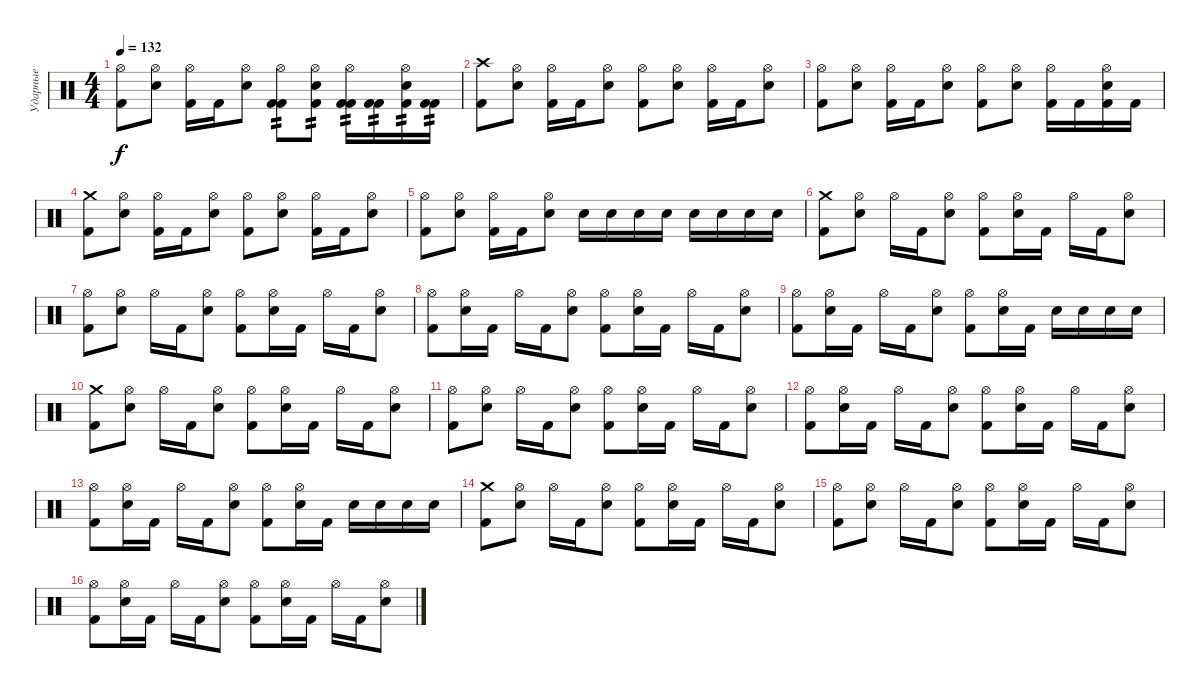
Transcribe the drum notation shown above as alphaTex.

\track ("Ударные" "Ударные") {instrument percussion}
\staff {score}
\articulation defaults
\ts (4 4)
\tempo 132
\clef neutral
\ks c
("Hi-Hat (open)" "Kick (hit) 2").8{dy f} ("Hi-Hat (open)" "Electric Snare (hit)").8 ("Hi-Hat (open)" "Kick (hit) 2").16 "Kick (hit) 2".16 ("Hi-Hat (open)" "Electric Snare (hit)").8 ("Hi-Hat (open)" "Kick (hit) 2" "Kick (hit) 2").8{tp 2} ("Hi-Hat (open)" "Electric Snare (hit)" "Kick (hit) 2").8{tp 2} ("Hi-Hat (open)" "Kick (hit) 2" "Kick (hit) 2").16{tp 2} ("Kick (hit) 2" "Kick (hit) 2").16{tp 2} ("Hi-Hat (open)" "Kick (hit) 2" "Electric Snare (hit)").16{tp 2} ("Kick (hit) 2" "Kick (hit) 2").16{tp 2} |
("Crash high (hit)" "Kick (hit) 2").8 ("Hi-Hat (open)" "Electric Snare (hit)").8 ("Hi-Hat (open)" "Kick (hit) 2").16 "Kick (hit) 2".16 ("Hi-Hat (open)" "Electric Snare (hit)").8 ("Hi-Hat (open)" "Kick (hit) 2").8 ("Hi-Hat (open)" "Electric Snare (hit)").8 ("Hi-Hat (open)" "Kick (hit) 2").16 "Kick (hit) 2".16 ("Hi-Hat (open)" "Electric Snare (hit)").8 |
("Hi-Hat (open)" "Kick (hit) 2").8 ("Hi-Hat (open)" "Electric Snare (hit)").8 ("Hi-Hat (open)" "Kick (hit) 2").16 "Kick (hit) 2".16 ("Hi-Hat (open)" "Electric Snare (hit)").8 ("Hi-Hat (open)" "Kick (hit) 2").8 ("Hi-Hat (open)" "Electric Snare (hit)").8 ("Hi-Hat (open)" "Kick (hit) 2").16 "Kick (hit) 2".16 ("Hi-Hat (open)" "Kick (hit) 2" "Electric Snare (hit)").16 "Kick (hit) 2".16 |
("Crash medium (hit)" "Kick (hit) 2").8 ("Hi-Hat (open)" "Electric Snare (hit)").8 ("Hi-Hat (open)" "Kick (hit) 2").16 "Kick (hit) 2".16 ("Hi-Hat (open)" "Electric Snare (hit)").8 ("Hi-Hat (open)" "Kick (hit) 2").8 ("Hi-Hat (open)" "Electric Snare (hit)").8 ("Hi-Hat (open)" "Kick (hit) 2").16 "Kick (hit) 2".16 ("Hi-Hat (open)" "Electric Snare (hit)").8 |
("Hi-Hat (open)" "Kick (hit) 2").8 ("Hi-Hat (open)" "Electric Snare (hit)").8 ("Hi-Hat (open)" "Kick (hit) 2").16 "Kick (hit) 2".16 ("Hi-Hat (open)" "Electric Snare (hit)").8 "Electric Snare (hit)".16 "Electric Snare (hit)".16 "Electric Snare (hit)".16 "Electric Snare (hit)".16 "Electric Snare (hit)".16 "Electric Snare (hit)".16 "Electric Snare (hit)".16 "Electric Snare (hit)".16 |
("Kick (hit) 2" "Crash medium (hit)").8 ("Electric Snare (hit)" "Hi-Hat (open)").8 "Hi-Hat (open)".16 "Kick (hit) 2".16 ("Electric Snare (hit)" "Hi-Hat (open)").8 ("Kick (hit) 2" "Hi-Hat (open)").8 ("Electric Snare (hit)" "Hi-Hat (open)").16 "Kick (hit) 2".16 "Hi-Hat (open)".16 "Kick (hit) 2".16 ("Electric Snare (hit)" "Hi-Hat (open)").8 |
("Kick (hit) 2" "Hi-Hat (open)").8 ("Electric Snare (hit)" "Hi-Hat (open)").8 "Hi-Hat (open)".16 "Kick (hit) 2".16 ("Electric Snare (hit)" "Hi-Hat (open)").8 ("Kick (hit) 2" "Hi-Hat (open)").8 ("Electric Snare (hit)" "Hi-Hat (open)").16 "Kick (hit) 2".16 "Hi-Hat (open)".16 "Kick (hit) 2".16 ("Electric Snare (hit)" "Hi-Hat (open)").8 |
("Kick (hit) 2" "Hi-Hat (open)").8 ("Electric Snare (hit)" "Hi-Hat (open)").16 "Kick (hit) 2".16 "Hi-Hat (open)".16 "Kick (hit) 2".16 ("Electric Snare (hit)" "Hi-Hat (open)").8 ("Kick (hit) 2" "Hi-Hat (open)").8 ("Electric Snare (hit)" "Hi-Hat (open)").16 "Kick (hit) 2".16 "Hi-Hat (open)".16 "Kick (hit) 2".16 ("Electric Snare (hit)" "Hi-Hat (open)").8 |
("Kick (hit) 2" "Hi-Hat (open)").8 ("Electric Snare (hit)" "Hi-Hat (open)").16 "Kick (hit) 2".16 "Hi-Hat (open)".16 "Kick (hit) 2".16 ("Electric Snare (hit)" "Hi-Hat (open)").8 ("Kick (hit) 2" "Hi-Hat (open)").8 ("Electric Snare (hit)" "Hi-Hat (open)").16 "Kick (hit) 2".16 "Electric Snare (hit)".16 "Electric Snare (hit)".16 "Electric Snare (hit)".16 "Electric Snare (hit)".16 |
("Kick (hit) 2" "Crash medium (hit)").8 ("Electric Snare (hit)" "Hi-Hat (open)").8 "Hi-Hat (open)".16 "Kick (hit) 2".16 ("Electric Snare (hit)" "Hi-Hat (open)").8 ("Kick (hit) 2" "Hi-Hat (open)").8 ("Electric Snare (hit)" "Hi-Hat (open)").16 "Kick (hit) 2".16 "Hi-Hat (open)".16 "Kick (hit) 2".16 ("Electric Snare (hit)" "Hi-Hat (open)").8 |
("Kick (hit) 2" "Hi-Hat (open)").8 ("Electric Snare (hit)" "Hi-Hat (open)").8 "Hi-Hat (open)".16 "Kick (hit) 2".16 ("Electric Snare (hit)" "Hi-Hat (open)").8 ("Kick (hit) 2" "Hi-Hat (open)").8 ("Electric Snare (hit)" "Hi-Hat (open)").16 "Kick (hit) 2".16 "Hi-Hat (open)".16 "Kick (hit) 2".16 ("Electric Snare (hit)" "Hi-Hat (open)").8 |
("Kick (hit) 2" "Hi-Hat (open)").8 ("Electric Snare (hit)" "Hi-Hat (open)").16 "Kick (hit) 2".16 "Hi-Hat (open)".16 "Kick (hit) 2".16 ("Electric Snare (hit)" "Hi-Hat (open)").8 ("Kick (hit) 2" "Hi-Hat (open)").8 ("Electric Snare (hit)" "Hi-Hat (open)").16 "Kick (hit) 2".16 "Hi-Hat (open)".16 "Kick (hit) 2".16 ("Electric Snare (hit)" "Hi-Hat (open)").8 |
("Kick (hit) 2" "Hi-Hat (open)").8 ("Electric Snare (hit)" "Hi-Hat (open)").16 "Kick (hit) 2".16 "Hi-Hat (open)".16 "Kick (hit) 2".16 ("Electric Snare (hit)" "Hi-Hat (open)").8 ("Kick (hit) 2" "Hi-Hat (open)").8 ("Electric Snare (hit)" "Hi-Hat (open)").16 "Kick (hit) 2".16 "Electric Snare (hit)".16 "Electric Snare (hit)".16 "Electric Snare (hit)".16 "Electric Snare (hit)".16 |
("Kick (hit) 2" "Crash medium (hit)").8 ("Electric Snare (hit)" "Hi-Hat (open)").8 "Hi-Hat (open)".16 "Kick (hit) 2".16 ("Electric Snare (hit)" "Hi-Hat (open)").8 ("Kick (hit) 2" "Hi-Hat (open)").8 ("Electric Snare (hit)" "Hi-Hat (open)").16 "Kick (hit) 2".16 "Hi-Hat (open)".16 "Kick (hit) 2".16 ("Electric Snare (hit)" "Hi-Hat (open)").8 |
("Kick (hit) 2" "Hi-Hat (open)").8 ("Electric Snare (hit)" "Hi-Hat (open)").8 "Hi-Hat (open)".16 "Kick (hit) 2".16 ("Electric Snare (hit)" "Hi-Hat (open)").8 ("Kick (hit) 2" "Hi-Hat (open)").8 ("Electric Snare (hit)" "Hi-Hat (open)").16 "Kick (hit) 2".16 "Hi-Hat (open)".16 "Kick (hit) 2".16 ("Electric Snare (hit)" "Hi-Hat (open)").8 |
("Kick (hit) 2" "Hi-Hat (open)").8 ("Electric Snare (hit)" "Hi-Hat (open)").16 "Kick (hit) 2".16 "Hi-Hat (open)".16 "Kick (hit) 2".16 ("Electric Snare (hit)" "Hi-Hat (open)").8 ("Kick (hit) 2" "Hi-Hat (open)").8 ("Electric Snare (hit)" "Hi-Hat (open)").16 "Kick (hit) 2".16 "Hi-Hat (open)".16 "Kick (hit) 2".16 ("Electric Snare (hit)" "Hi-Hat (open)").8
